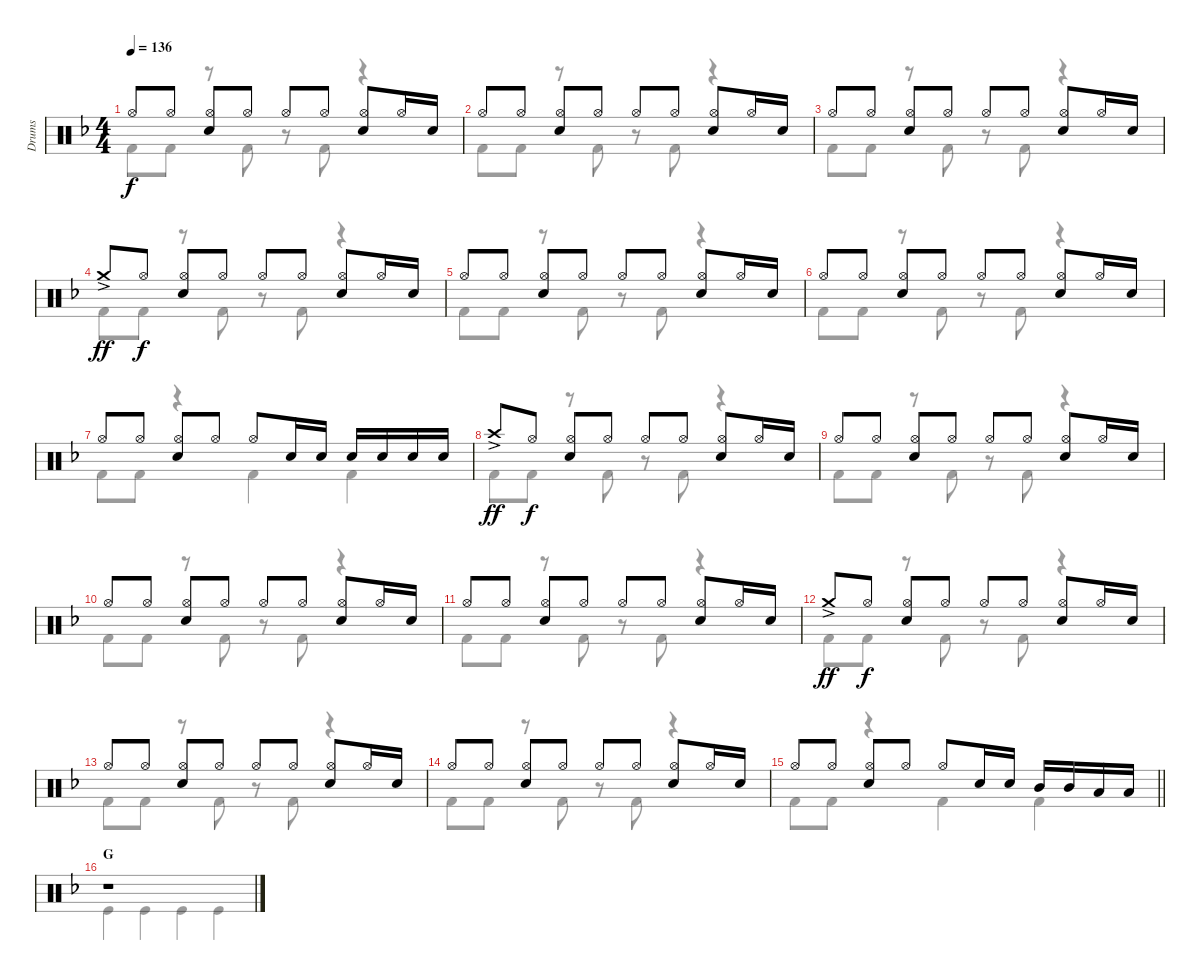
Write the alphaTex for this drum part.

\track ("Drums" "Drums") {instrument percussion}
\staff {score}
\articulation defaults
\voice
\ts (4 4)
\tempo 136
\clef neutral
\ks f "Hi-Hat (open)".8{dy f} "Hi-Hat (open)".8
("Hi-Hat (open)" "Snare (hit) 2").8 "Hi-Hat (open)".8 "Hi-Hat (open)".8 "Hi-Hat (open)".8 ("Hi-Hat (open)" "Snare (hit) 2").8 "Hi-Hat (open)".16 "Snare (hit) 2".16 |
"Hi-Hat (open)".8 "Hi-Hat (open)".8 ("Hi-Hat (open)" "Snare (hit) 2").8 "Hi-Hat (open)".8 "Hi-Hat (open)".8 "Hi-Hat (open)".8 ("Hi-Hat (open)" "Snare (hit) 2").8 "Hi-Hat (open)".16 "Snare (hit) 2".16 |
"Hi-Hat (open)".8 "Hi-Hat (open)".8 ("Hi-Hat (open)" "Snare (hit) 2").8 "Hi-Hat (open)".8 "Hi-Hat (open)".8 "Hi-Hat (open)".8 ("Hi-Hat (open)" "Snare (hit) 2").8 "Hi-Hat (open)".16 "Snare (hit) 2".16 |
"Crash medium (hit)"{ac}.8{dy ff} "Hi-Hat (open)".8{dy f} ("Hi-Hat (open)" "Snare (hit) 2").8 "Hi-Hat (open)".8 "Hi-Hat (open)".8 "Hi-Hat (open)".8 ("Hi-Hat (open)" "Snare (hit) 2").8 "Hi-Hat (open)".16 "Snare (hit) 2".16 |
"Hi-Hat (open)".8 "Hi-Hat (open)".8 ("Hi-Hat (open)" "Snare (hit) 2").8 "Hi-Hat (open)".8 "Hi-Hat (open)".8 "Hi-Hat (open)".8 ("Hi-Hat (open)" "Snare (hit) 2").8 "Hi-Hat (open)".16 "Snare (hit) 2".16 |
"Hi-Hat (open)".8 "Hi-Hat (open)".8 ("Hi-Hat (open)" "Snare (hit) 2").8 "Hi-Hat (open)".8 "Hi-Hat (open)".8 "Hi-Hat (open)".8 ("Hi-Hat (open)" "Snare (hit) 2").8 "Hi-Hat (open)".16 "Snare (hit) 2".16 |
"Hi-Hat (open)".8 "Hi-Hat (open)".8 ("Hi-Hat (open)" "Snare (hit) 2").8 "Hi-Hat (open)".8 "Hi-Hat (open)".8 "Snare (hit) 2".16 "Snare (hit) 2".16 "Snare (hit) 2".16 "Snare (hit) 2".16 "Snare (hit) 2".16 "Snare (hit) 2".16 |
"Crash high (hit)"{ac}.8{dy ff} "Hi-Hat (open)".8{dy f} ("Hi-Hat (open)" "Snare (hit) 2").8 "Hi-Hat (open)".8 "Hi-Hat (open)".8 "Hi-Hat (open)".8 ("Hi-Hat (open)" "Snare (hit) 2").8 "Hi-Hat (open)".16 "Snare (hit) 2".16 |
"Hi-Hat (open)".8 "Hi-Hat (open)".8 ("Hi-Hat (open)" "Snare (hit) 2").8 "Hi-Hat (open)".8 "Hi-Hat (open)".8 "Hi-Hat (open)".8 ("Hi-Hat (open)" "Snare (hit) 2").8 "Hi-Hat (open)".16 "Snare (hit) 2".16 |
"Hi-Hat (open)".8 "Hi-Hat (open)".8 ("Hi-Hat (open)" "Snare (hit) 2").8 "Hi-Hat (open)".8 "Hi-Hat (open)".8 "Hi-Hat (open)".8 ("Hi-Hat (open)" "Snare (hit) 2").8 "Hi-Hat (open)".16 "Snare (hit) 2".16 |
"Hi-Hat (open)".8 "Hi-Hat (open)".8 ("Hi-Hat (open)" "Snare (hit) 2").8 "Hi-Hat (open)".8 "Hi-Hat (open)".8 "Hi-Hat (open)".8 ("Hi-Hat (open)" "Snare (hit) 2").8 "Hi-Hat (open)".16 "Snare (hit) 2".16 |
"Crash medium (hit)"{ac}.8{dy ff} "Hi-Hat (open)".8{dy f} ("Hi-Hat (open)" "Snare (hit) 2").8 "Hi-Hat (open)".8 "Hi-Hat (open)".8 "Hi-Hat (open)".8 ("Hi-Hat (open)" "Snare (hit) 2").8 "Hi-Hat (open)".16 "Snare (hit) 2".16 |
"Hi-Hat (open)".8 "Hi-Hat (open)".8 ("Hi-Hat (open)" "Snare (hit) 2").8 "Hi-Hat (open)".8 "Hi-Hat (open)".8 "Hi-Hat (open)".8 ("Hi-Hat (open)" "Snare (hit) 2").8 "Hi-Hat (open)".16 "Snare (hit) 2".16 |
"Hi-Hat (open)".8 "Hi-Hat (open)".8 ("Hi-Hat (open)" "Snare (hit) 2").8 "Hi-Hat (open)".8 "Hi-Hat (open)".8 "Hi-Hat (open)".8 ("Hi-Hat (open)" "Snare (hit) 2").8 "Hi-Hat (open)".16 "Snare (hit) 2".16 |
\barLineRight lightlight "Hi-Hat (open)".8 "Hi-Hat (open)".8
("Hi-Hat (open)" "Snare (hit) 2").8 "Hi-Hat (open)".8 "Hi-Hat (open)".8 "Snare (hit) 2".16 "Snare (hit) 2".16 "Mid Tom (hit)".16 "Mid Tom (hit)".16 "Low Tom (hit)".16 "Low Tom (hit)".16 |
\section ("" "G")
r.1
\voice
\clef neutral
\ottava regular
\simile none
\ks f "Kick (hit) 2".8{dy f} "Kick (hit) 2".8
r.8 "Kick (hit) 2".8 r.8 "Kick (hit) 2".8 r.4 |
"Kick (hit) 2".8 "Kick (hit) 2".8 r.8 "Kick (hit) 2".8 r.8 "Kick (hit) 2".8 r.4 |
"Kick (hit) 2".8 "Kick (hit) 2".8 r.8 "Kick (hit) 2".8 r.8 "Kick (hit) 2".8 r.4 |
"Kick (hit) 2".8 "Kick (hit) 2".8 r.8 "Kick (hit) 2".8 r.8 "Kick (hit) 2".8 r.4 |
"Kick (hit) 2".8 "Kick (hit) 2".8 r.8 "Kick (hit) 2".8 r.8 "Kick (hit) 2".8 r.4 |
"Kick (hit) 2".8 "Kick (hit) 2".8 r.8 "Kick (hit) 2".8 r.8 "Kick (hit) 2".8 r.4 |
"Kick (hit) 2".8 "Kick (hit) 2".8 r.4 "Kick (hit) 2".4 "Kick (hit) 2".4 |
"Kick (hit) 2".8 "Kick (hit) 2".8 r.8 "Kick (hit) 2".8 r.8 "Kick (hit) 2".8 r.4 |
"Kick (hit) 2".8 "Kick (hit) 2".8 r.8 "Kick (hit) 2".8 r.8 "Kick (hit) 2".8 r.4 |
"Kick (hit) 2".8 "Kick (hit) 2".8 r.8 "Kick (hit) 2".8 r.8 "Kick (hit) 2".8 r.4 |
"Kick (hit) 2".8 "Kick (hit) 2".8 r.8 "Kick (hit) 2".8 r.8 "Kick (hit) 2".8 r.4 |
"Kick (hit) 2".8 "Kick (hit) 2".8 r.8 "Kick (hit) 2".8 r.8 "Kick (hit) 2".8 r.4 |
"Kick (hit) 2".8 "Kick (hit) 2".8 r.8 "Kick (hit) 2".8 r.8 "Kick (hit) 2".8 r.4 |
"Kick (hit) 2".8 "Kick (hit) 2".8 r.8 "Kick (hit) 2".8 r.8 "Kick (hit) 2".8 r.4 |
\barLineRight lightlight "Kick (hit) 2".8 "Kick (hit) 2".8
r.4 "Kick (hit) 2".4 "Kick (hit) 2".4 |
"Kick (hit)".4 "Kick (hit)".4 "Kick (hit)".4 "Kick (hit)".4
